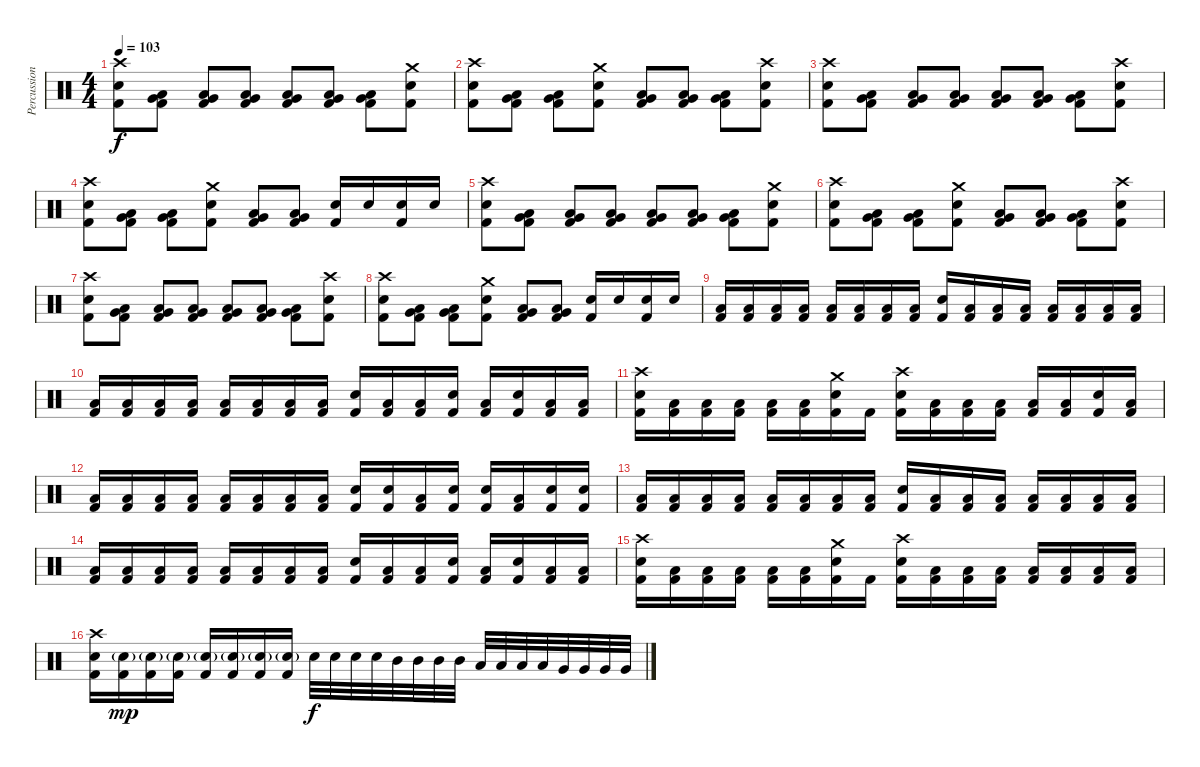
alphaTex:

\track ("Percussion" "Percussion") {instrument percussion}
\staff {score}
\articulation defaults
\ts (4 4)
\tempo 103
\clef neutral
\ks c
("Crash high (hit)" "Electric Snare (hit)" "Kick (hit) 2").8{dy f} ("Very Low Tom (hit)" "Low Floor Tom (hit)" "Kick (hit) 2").8 ("Very Low Tom (hit)" "Low Floor Tom (hit)" "Kick (hit) 2").8 ("Very Low Tom (hit)" "Low Floor Tom (hit)" "Kick (hit) 2").8 ("Very Low Tom (hit)" "Low Floor Tom (hit)" "Kick (hit) 2").8 ("Very Low Tom (hit)" "Low Floor Tom (hit)" "Kick (hit) 2").8 ("Very Low Tom (hit)" "Low Floor Tom (hit)" "Kick (hit) 2").8 ("Crash medium (hit)" "Electric Snare (hit)" "Kick (hit) 2").8 |
("Crash high (hit)" "Electric Snare (hit)" "Kick (hit) 2").8 ("Very Low Tom (hit)" "Low Floor Tom (hit)" "Kick (hit) 2").8 ("Very Low Tom (hit)" "Low Floor Tom (hit)" "Kick (hit) 2").8 ("Crash medium (hit)" "Electric Snare (hit)" "Kick (hit) 2").8 ("Very Low Tom (hit)" "Low Floor Tom (hit)" "Kick (hit) 2").8 ("Very Low Tom (hit)" "Low Floor Tom (hit)" "Kick (hit) 2").8 ("Very Low Tom (hit)" "Low Floor Tom (hit)" "Kick (hit) 2").8 ("Crash high (hit)" "Electric Snare (hit)" "Kick (hit) 2").8 |
("Crash high (hit)" "Electric Snare (hit)" "Kick (hit) 2").8 ("Very Low Tom (hit)" "Low Floor Tom (hit)" "Kick (hit) 2").8 ("Very Low Tom (hit)" "Low Floor Tom (hit)" "Kick (hit) 2").8 ("Very Low Tom (hit)" "Low Floor Tom (hit)" "Kick (hit) 2").8 ("Very Low Tom (hit)" "Low Floor Tom (hit)" "Kick (hit) 2").8 ("Very Low Tom (hit)" "Low Floor Tom (hit)" "Kick (hit) 2").8 ("Very Low Tom (hit)" "Low Floor Tom (hit)" "Kick (hit) 2").8 ("Crash high (hit)" "Electric Snare (hit)" "Kick (hit) 2").8 |
("Crash high (hit)" "Electric Snare (hit)" "Kick (hit) 2").8 ("Very Low Tom (hit)" "Low Floor Tom (hit)" "Kick (hit) 2").8 ("Very Low Tom (hit)" "Low Floor Tom (hit)" "Kick (hit) 2").8 ("Crash medium (hit)" "Electric Snare (hit)" "Kick (hit) 2").8 ("Very Low Tom (hit)" "Low Floor Tom (hit)" "Kick (hit) 2").8 ("Very Low Tom (hit)" "Low Floor Tom (hit)" "Kick (hit) 2").8 ("Electric Snare (hit)" "Kick (hit) 2").16 "Electric Snare (hit)".16 ("Electric Snare (hit)" "Kick (hit) 2").16 "Electric Snare (hit)".16 |
("Crash high (hit)" "Electric Snare (hit)" "Kick (hit) 2").8 ("Very Low Tom (hit)" "Low Floor Tom (hit)" "Kick (hit) 2").8 ("Very Low Tom (hit)" "Low Floor Tom (hit)" "Kick (hit) 2").8 ("Very Low Tom (hit)" "Low Floor Tom (hit)" "Kick (hit) 2").8 ("Very Low Tom (hit)" "Low Floor Tom (hit)" "Kick (hit) 2").8 ("Very Low Tom (hit)" "Low Floor Tom (hit)" "Kick (hit) 2").8 ("Very Low Tom (hit)" "Low Floor Tom (hit)" "Kick (hit) 2").8 ("Crash medium (hit)" "Electric Snare (hit)" "Kick (hit) 2").8 |
("Crash high (hit)" "Electric Snare (hit)" "Kick (hit) 2").8 ("Very Low Tom (hit)" "Low Floor Tom (hit)" "Kick (hit) 2").8 ("Very Low Tom (hit)" "Low Floor Tom (hit)" "Kick (hit) 2").8 ("Crash medium (hit)" "Electric Snare (hit)" "Kick (hit) 2").8 ("Very Low Tom (hit)" "Low Floor Tom (hit)" "Kick (hit) 2").8 ("Very Low Tom (hit)" "Low Floor Tom (hit)" "Kick (hit) 2").8 ("Very Low Tom (hit)" "Low Floor Tom (hit)" "Kick (hit) 2").8 ("Crash high (hit)" "Electric Snare (hit)" "Kick (hit) 2").8 |
("Crash high (hit)" "Electric Snare (hit)" "Kick (hit) 2").8 ("Very Low Tom (hit)" "Low Floor Tom (hit)" "Kick (hit) 2").8 ("Very Low Tom (hit)" "Low Floor Tom (hit)" "Kick (hit) 2").8 ("Very Low Tom (hit)" "Low Floor Tom (hit)" "Kick (hit) 2").8 ("Very Low Tom (hit)" "Low Floor Tom (hit)" "Kick (hit) 2").8 ("Very Low Tom (hit)" "Low Floor Tom (hit)" "Kick (hit) 2").8 ("Very Low Tom (hit)" "Low Floor Tom (hit)" "Kick (hit) 2").8 ("Crash high (hit)" "Electric Snare (hit)" "Kick (hit) 2").8 |
("Crash high (hit)" "Electric Snare (hit)" "Kick (hit) 2").8 ("Very Low Tom (hit)" "Low Floor Tom (hit)" "Kick (hit) 2").8 ("Very Low Tom (hit)" "Low Floor Tom (hit)" "Kick (hit) 2").8 ("Crash medium (hit)" "Electric Snare (hit)" "Kick (hit) 2").8 ("Very Low Tom (hit)" "Low Floor Tom (hit)" "Kick (hit) 2").8 ("Very Low Tom (hit)" "Low Floor Tom (hit)" "Kick (hit) 2").8 ("Electric Snare (hit)" "Kick (hit) 2").16 "Electric Snare (hit)".16 ("Electric Snare (hit)" "Kick (hit) 2").16 "Electric Snare (hit)".16 |
("Low Floor Tom (hit)" "Kick (hit) 2").16 ("Low Floor Tom (hit)" "Kick (hit) 2").16 ("Low Floor Tom (hit)" "Kick (hit) 2").16 ("Low Floor Tom (hit)" "Kick (hit) 2").16 ("Low Floor Tom (hit)" "Kick (hit) 2").16 ("Low Floor Tom (hit)" "Kick (hit) 2").16 ("Low Floor Tom (hit)" "Kick (hit) 2").16 ("Low Floor Tom (hit)" "Kick (hit) 2").16 ("Electric Snare (hit)" "Kick (hit) 2").16 ("Low Floor Tom (hit)" "Kick (hit) 2").16 ("Low Floor Tom (hit)" "Kick (hit) 2").16 ("Low Floor Tom (hit)" "Kick (hit) 2").16 ("Low Floor Tom (hit)" "Kick (hit) 2").16 ("Low Floor Tom (hit)" "Kick (hit) 2").16 ("Low Floor Tom (hit)" "Kick (hit) 2").16 ("Low Floor Tom (hit)" "Kick (hit) 2").16 |
("Low Floor Tom (hit)" "Kick (hit) 2").16 ("Low Floor Tom (hit)" "Kick (hit) 2").16 ("Low Floor Tom (hit)" "Kick (hit) 2").16 ("Low Floor Tom (hit)" "Kick (hit) 2").16 ("Low Floor Tom (hit)" "Kick (hit) 2").16 ("Low Floor Tom (hit)" "Kick (hit) 2").16 ("Low Floor Tom (hit)" "Kick (hit) 2").16 ("Low Floor Tom (hit)" "Kick (hit) 2").16 ("Electric Snare (hit)" "Kick (hit) 2").16 ("Low Floor Tom (hit)" "Kick (hit) 2").16 ("Low Floor Tom (hit)" "Kick (hit) 2").16 ("Electric Snare (hit)" "Kick (hit) 2").16 ("Low Floor Tom (hit)" "Kick (hit) 2").16 ("Electric Snare (hit)" "Kick (hit) 2").16 ("Low Floor Tom (hit)" "Kick (hit) 2").16 ("Low Floor Tom (hit)" "Kick (hit) 2").16 |
("Crash high (hit)" "Electric Snare (hit)" "Kick (hit) 2").16 ("Low Floor Tom (hit)" "Kick (hit) 2").16 ("Low Floor Tom (hit)" "Kick (hit) 2").16 ("Low Floor Tom (hit)" "Kick (hit) 2").16 ("Low Floor Tom (hit)" "Kick (hit) 2").16 ("Low Floor Tom (hit)" "Kick (hit) 2").16 ("Crash medium (hit)" "Electric Snare (hit)" "Kick (hit) 2").16 "Kick (hit) 2".16 ("Crash high (hit)" "Electric Snare (hit)" "Kick (hit) 2").16 ("Low Floor Tom (hit)" "Kick (hit) 2").16 ("Low Floor Tom (hit)" "Kick (hit) 2").16 ("Low Floor Tom (hit)" "Kick (hit) 2").16 ("Low Floor Tom (hit)" "Kick (hit) 2").16 ("Low Floor Tom (hit)" "Kick (hit) 2").16 ("Electric Snare (hit)" "Kick (hit) 2").16 ("Low Floor Tom (hit)" "Kick (hit) 2").16 |
("Low Floor Tom (hit)" "Kick (hit) 2").16 ("Low Floor Tom (hit)" "Kick (hit) 2").16 ("Low Floor Tom (hit)" "Kick (hit) 2").16 ("Low Floor Tom (hit)" "Kick (hit) 2").16 ("Low Floor Tom (hit)" "Kick (hit) 2").16 ("Low Floor Tom (hit)" "Kick (hit) 2").16 ("Low Floor Tom (hit)" "Kick (hit) 2").16 ("Low Floor Tom (hit)" "Kick (hit) 2").16 ("Electric Snare (hit)" "Kick (hit) 2").16 ("Electric Snare (hit)" "Kick (hit) 2").16 ("Low Floor Tom (hit)" "Kick (hit) 2").16 ("Electric Snare (hit)" "Kick (hit) 2").16 ("Electric Snare (hit)" "Kick (hit) 2").16 ("Low Floor Tom (hit)" "Kick (hit) 2").16 ("Electric Snare (hit)" "Kick (hit) 2").16 ("Electric Snare (hit)" "Kick (hit) 2").16 |
("Low Floor Tom (hit)" "Kick (hit) 2").16 ("Low Floor Tom (hit)" "Kick (hit) 2").16 ("Low Floor Tom (hit)" "Kick (hit) 2").16 ("Low Floor Tom (hit)" "Kick (hit) 2").16 ("Low Floor Tom (hit)" "Kick (hit) 2").16 ("Low Floor Tom (hit)" "Kick (hit) 2").16 ("Low Floor Tom (hit)" "Kick (hit) 2").16 ("Low Floor Tom (hit)" "Kick (hit) 2").16 ("Electric Snare (hit)" "Kick (hit) 2").16 ("Low Floor Tom (hit)" "Kick (hit) 2").16 ("Low Floor Tom (hit)" "Kick (hit) 2").16 ("Low Floor Tom (hit)" "Kick (hit) 2").16 ("Low Floor Tom (hit)" "Kick (hit) 2").16 ("Low Floor Tom (hit)" "Kick (hit) 2").16 ("Low Floor Tom (hit)" "Kick (hit) 2").16 ("Low Floor Tom (hit)" "Kick (hit) 2").16 |
("Low Floor Tom (hit)" "Kick (hit) 2").16 ("Low Floor Tom (hit)" "Kick (hit) 2").16 ("Low Floor Tom (hit)" "Kick (hit) 2").16 ("Low Floor Tom (hit)" "Kick (hit) 2").16 ("Low Floor Tom (hit)" "Kick (hit) 2").16 ("Low Floor Tom (hit)" "Kick (hit) 2").16 ("Low Floor Tom (hit)" "Kick (hit) 2").16 ("Low Floor Tom (hit)" "Kick (hit) 2").16 ("Electric Snare (hit)" "Kick (hit) 2").16 ("Low Floor Tom (hit)" "Kick (hit) 2").16 ("Low Floor Tom (hit)" "Kick (hit) 2").16 ("Electric Snare (hit)" "Kick (hit) 2").16 ("Low Floor Tom (hit)" "Kick (hit) 2").16 ("Electric Snare (hit)" "Kick (hit) 2").16 ("Low Floor Tom (hit)" "Kick (hit) 2").16 ("Low Floor Tom (hit)" "Kick (hit) 2").16 |
("Crash high (hit)" "Electric Snare (hit)" "Kick (hit) 2").16 ("Low Floor Tom (hit)" "Kick (hit) 2").16 ("Low Floor Tom (hit)" "Kick (hit) 2").16 ("Low Floor Tom (hit)" "Kick (hit) 2").16 ("Low Floor Tom (hit)" "Kick (hit) 2").16 ("Low Floor Tom (hit)" "Kick (hit) 2").16 ("Crash medium (hit)" "Electric Snare (hit)" "Kick (hit) 2").16 "Kick (hit) 2".16 ("Crash high (hit)" "Electric Snare (hit)" "Kick (hit) 2").16 ("Low Floor Tom (hit)" "Kick (hit) 2").16 ("Low Floor Tom (hit)" "Kick (hit) 2").16 ("Low Floor Tom (hit)" "Kick (hit) 2").16 ("Low Floor Tom (hit)" "Kick (hit) 2").16 ("Low Floor Tom (hit)" "Kick (hit) 2").16 ("Low Floor Tom (hit)" "Kick (hit) 2").16 ("Low Floor Tom (hit)" "Kick (hit) 2").16 |
("Crash high (hit)" "Electric Snare (hit)" "Kick (hit) 2").16 ("Electric Snare (hit)"{g} "Kick (hit) 2").16{dy mp} ("Electric Snare (hit)"{g} "Kick (hit) 2").16 ("Electric Snare (hit)"{g} "Kick (hit) 2").16 ("Electric Snare (hit)"{g} "Kick (hit) 2").16 ("Electric Snare (hit)"{g} "Kick (hit) 2").16 ("Electric Snare (hit)"{g} "Kick (hit) 2").16 ("Electric Snare (hit)"{g} "Kick (hit) 2").16 "Electric Snare (hit)".32{dy f} "Electric Snare (hit)".32 "Electric Snare (hit)".32 "Electric Snare (hit)".32 "Mid Tom (hit)".32 "Mid Tom (hit)".32 "Mid Tom (hit)".32 "Mid Tom (hit)".32 "Low Tom (hit)".32 "Low Tom (hit)".32 "Low Tom (hit)".32 "Low Tom (hit)".32 "Very Low Tom (hit)".32 "Very Low Tom (hit)".32 "Very Low Tom (hit)".32 "Very Low Tom (hit)".32
